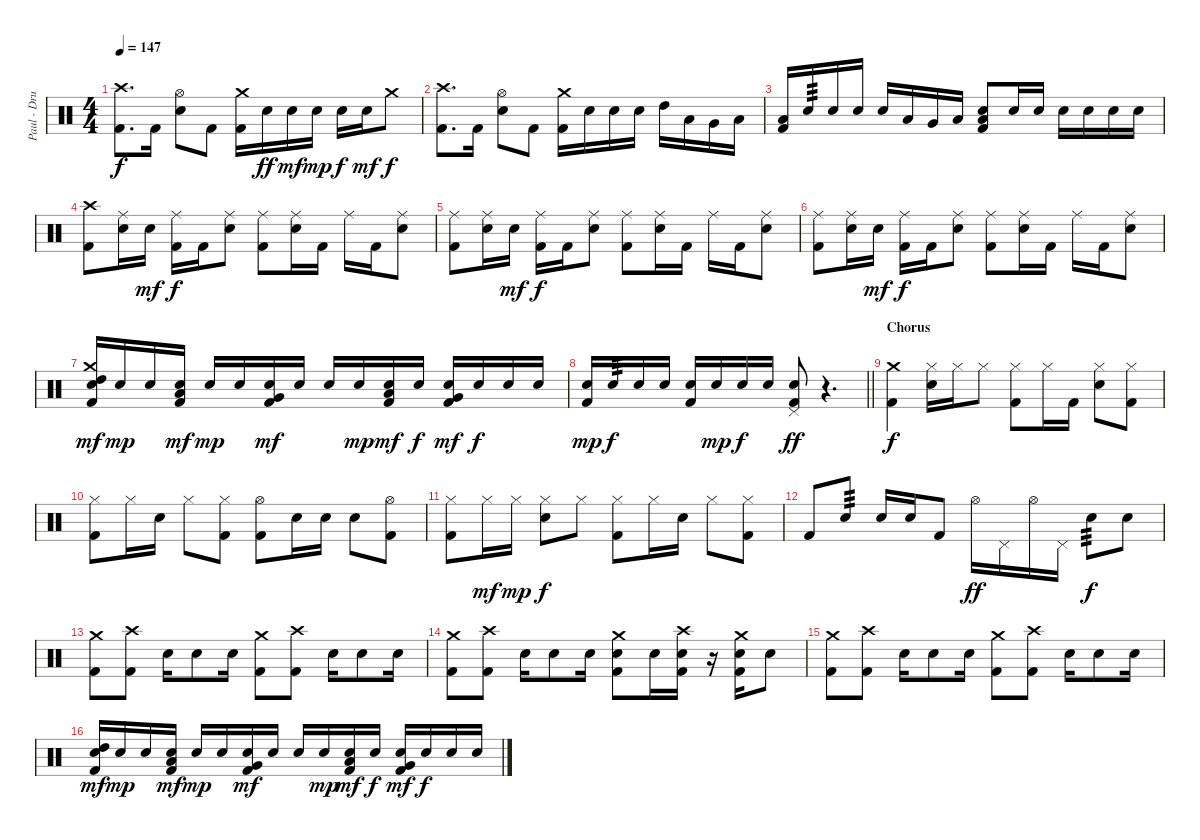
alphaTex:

\track ("Paul - Drums" "Paul - Dru") {instrument percussion}
\staff {score}
\articulation defaults
\ts (4 4)
\tempo 147
\clef neutral
\ks c
("Crash high (hit)" "Kick (hit) 2").8{d dy f} "Kick (hit) 2".16 ("Hi-Hat (open)" "Electric Snare (hit)").8 "Kick (hit) 2".8 ("Crash medium (hit)" "Kick (hit) 2").16 "Electric Snare (hit)".16{dy ff} "Electric Snare (hit)".16{dy mf} "Electric Snare (hit)".16{dy mp} "Electric Snare (hit)".16{dy f} "Electric Snare (hit)".16{dy mf} "Crash medium (hit)".8{dy f} |
("Crash high (hit)" "Kick (hit) 2").8{d} "Kick (hit) 2".16 ("Hi-Hat (open)" "Electric Snare (hit)").8 "Kick (hit) 2".8 ("Crash medium (hit)" "Kick (hit) 2").16 "Electric Snare (hit)".16 "Electric Snare (hit)".16 "Electric Snare (hit)".16 "High Tom (hit)".16 "Low Tom (hit)".16 "Very Low Tom (hit)".16 "Low Floor Tom (hit)".16 |
("Low Floor Tom (hit)" "Kick (hit) 2").16 "Electric Snare (hit)".16{tp 3} "Electric Snare (hit)".16 "Electric Snare (hit)".16 "Electric Snare (hit)".16 "Low Tom (hit)".16 "Very Low Tom (hit)".16 "Low Floor Tom (hit)".16 ("Low Floor Tom (hit)" "Electric Snare (hit)" "Kick (hit) 2").8 "Electric Snare (hit)".16 "Electric Snare (hit)".16 "Electric Snare (hit)".16 "Electric Snare (hit)".16 "Electric Snare (hit)".16 "Electric Snare (hit)".16 |
("Crash high (hit)" "Kick (hit) 2").8 ("Ride (middle)" "Electric Snare (hit)").16 "Electric Snare (hit)".16{dy mf} ("Ride (middle)" "Kick (hit) 2").16{dy f} "Kick (hit) 2".16 ("Ride (middle)" "Electric Snare (hit)").8 ("Ride (middle)" "Kick (hit) 2").8 ("Ride (middle)" "Electric Snare (hit)").16 "Kick (hit) 2".16 "Ride (middle)".16 "Kick (hit) 2".16 ("Ride (middle)" "Electric Snare (hit)").8 |
("Ride (middle)" "Kick (hit) 2").8 ("Ride (middle)" "Electric Snare (hit)").16 "Electric Snare (hit)".16{dy mf} ("Ride (middle)" "Kick (hit) 2").16{dy f} "Kick (hit) 2".16 ("Ride (middle)" "Electric Snare (hit)").8 ("Ride (middle)" "Kick (hit) 2").8 ("Ride (middle)" "Electric Snare (hit)").16 "Kick (hit) 2".16 "Ride (middle)".16 "Kick (hit) 2".16 ("Ride (middle)" "Electric Snare (hit)").8 |
("Ride (middle)" "Kick (hit) 2").8 ("Ride (middle)" "Electric Snare (hit)").16 "Electric Snare (hit)".16{dy mf} ("Ride (middle)" "Kick (hit) 2").16{dy f} "Kick (hit) 2".16 ("Ride (middle)" "Electric Snare (hit)").8 ("Ride (middle)" "Kick (hit) 2").8 ("Ride (middle)" "Electric Snare (hit)").16 "Kick (hit) 2".16 "Ride (middle)".16 "Kick (hit) 2".16 ("Ride (middle)" "Electric Snare (hit)").8 |
("Crash medium (hit)" "High Tom (hit)" "Electric Snare (hit)" "Kick (hit) 2").16{dy mf} "Electric Snare (hit)".16{dy mp} "Electric Snare (hit)".16 ("Low Tom (hit)" "Electric Snare (hit)" "Kick (hit) 2").16{dy mf} "Electric Snare (hit)".16{dy mp} "Electric Snare (hit)".16 ("Very Low Tom (hit)" "Electric Snare (hit)" "Kick (hit) 2").16{dy mf} "Electric Snare (hit)".16 "Electric Snare (hit)".16 "Electric Snare (hit)".16{dy mp} ("Low Tom (hit)" "Electric Snare (hit)" "Kick (hit) 2").16{dy mf} "Electric Snare (hit)".16{dy f} ("Very Low Tom (hit)" "Electric Snare (hit)" "Kick (hit) 2").16{dy mf} "Electric Snare (hit)".16{dy f} "Electric Snare (hit)".16 "Electric Snare (hit)".16 |
\barLineRight lightlight
("Electric Snare (hit)" "Kick (hit) 2").16{dy mp} "Electric Snare (hit)".16{tp 3 dy f} "Electric Snare (hit)".16 "Electric Snare (hit)".16 ("Electric Snare (hit)" "Kick (hit) 2").16 "Electric Snare (hit)".16{dy mp} "Electric Snare (hit)".16{dy f} "Electric Snare (hit)".16 ("Pedal Hi-Hat (hit)" "Electric Snare (hit)" "Kick (hit) 2").8{dy ff} r.4{d} |
\section ("" "Chorus")
("Crash medium (hit)" "Kick (hit) 2").4{dy f} ("Hi-Hat (closed)" "Electric Snare (hit)").16 "Hi-Hat (closed)".16 "Hi-Hat (closed)".8 ("Hi-Hat (closed)" "Kick (hit) 2").8 "Hi-Hat (closed)".16 "Kick (hit) 2".16 ("Hi-Hat (closed)" "Electric Snare (hit)").8 ("Hi-Hat (closed)" "Kick (hit) 2").8 |
("Hi-Hat (closed)" "Kick (hit) 2").8 "Hi-Hat (closed)".16 "Electric Snare (hit)".16 "Hi-Hat (closed)".8 ("Hi-Hat (closed)" "Kick (hit) 2").8 ("Hi-Hat (open)" "Kick (hit) 2").8 "Electric Snare (hit)".16 "Electric Snare (hit)".16 "Electric Snare (hit)".8 ("Hi-Hat (open)" "Kick (hit) 2").8 |
("Hi-Hat (closed)" "Kick (hit) 2").8 "Hi-Hat (closed)".16{dy mf} "Hi-Hat (closed)".16{dy mp} ("Hi-Hat (closed)" "Electric Snare (hit)").8{dy f} "Hi-Hat (closed)".8 ("Hi-Hat (closed)" "Kick (hit) 2").8 "Hi-Hat (closed)".16 "Electric Snare (hit)".16 "Hi-Hat (closed)".8 ("Hi-Hat (closed)" "Kick (hit) 2").8 |
"Kick (hit) 2".8 "Electric Snare (hit)".8{tp 3} "Electric Snare (hit)".16 "Electric Snare (hit)".16 "Kick (hit) 2".8 "Hi-Hat (open)".16{dy ff} "Pedal Hi-Hat (hit)".16 "Hi-Hat (open)".16 "Pedal Hi-Hat (hit)".16 "Electric Snare (hit)".8{tp 3 dy f} "Electric Snare (hit)".8 |
("Crash medium (hit)" "Kick (hit) 2").8 ("Crash high (hit)" "Kick (hit) 2").8 "Electric Snare (hit)".16 "Electric Snare (hit)".8 "Electric Snare (hit)".16 ("Crash medium (hit)" "Kick (hit) 2").8 ("Crash high (hit)" "Kick (hit) 2").8 "Electric Snare (hit)".16 "Electric Snare (hit)".8 "Electric Snare (hit)".16 |
("Crash medium (hit)" "Kick (hit) 2").8 ("Crash high (hit)" "Kick (hit) 2").8 "Electric Snare (hit)".16 "Electric Snare (hit)".8 "Electric Snare (hit)".16 ("Crash medium (hit)" "Electric Snare (hit)" "Kick (hit) 2").8 "Electric Snare (hit)".16 ("Crash high (hit)" "Electric Snare (hit)" "Kick (hit) 2").16 r.16 ("Crash medium (hit)" "Electric Snare (hit)" "Kick (hit) 2").16 "Electric Snare (hit)".8 |
("Crash medium (hit)" "Kick (hit) 2").8 ("Crash high (hit)" "Kick (hit) 2").8 "Electric Snare (hit)".16 "Electric Snare (hit)".8 "Electric Snare (hit)".16 ("Crash medium (hit)" "Kick (hit) 2").8 ("Crash high (hit)" "Kick (hit) 2").8 "Electric Snare (hit)".16 "Electric Snare (hit)".8 "Electric Snare (hit)".16 |
("High Tom (hit)" "Electric Snare (hit)" "Kick (hit) 2").16{dy mf} "Electric Snare (hit)".16{dy mp} "Electric Snare (hit)".16 ("Low Tom (hit)" "Electric Snare (hit)" "Kick (hit) 2").16{dy mf} "Electric Snare (hit)".16{dy mp} "Electric Snare (hit)".16 ("Very Low Tom (hit)" "Electric Snare (hit)" "Kick (hit) 2").16{dy mf} "Electric Snare (hit)".16 "Electric Snare (hit)".16 "Electric Snare (hit)".16{dy mp} ("Low Tom (hit)" "Electric Snare (hit)" "Kick (hit) 2").16{dy mf} "Electric Snare (hit)".16{dy f} ("Very Low Tom (hit)" "Electric Snare (hit)" "Kick (hit) 2").16{dy mf} "Electric Snare (hit)".16{dy f} "Electric Snare (hit)".16 "Electric Snare (hit)".16
